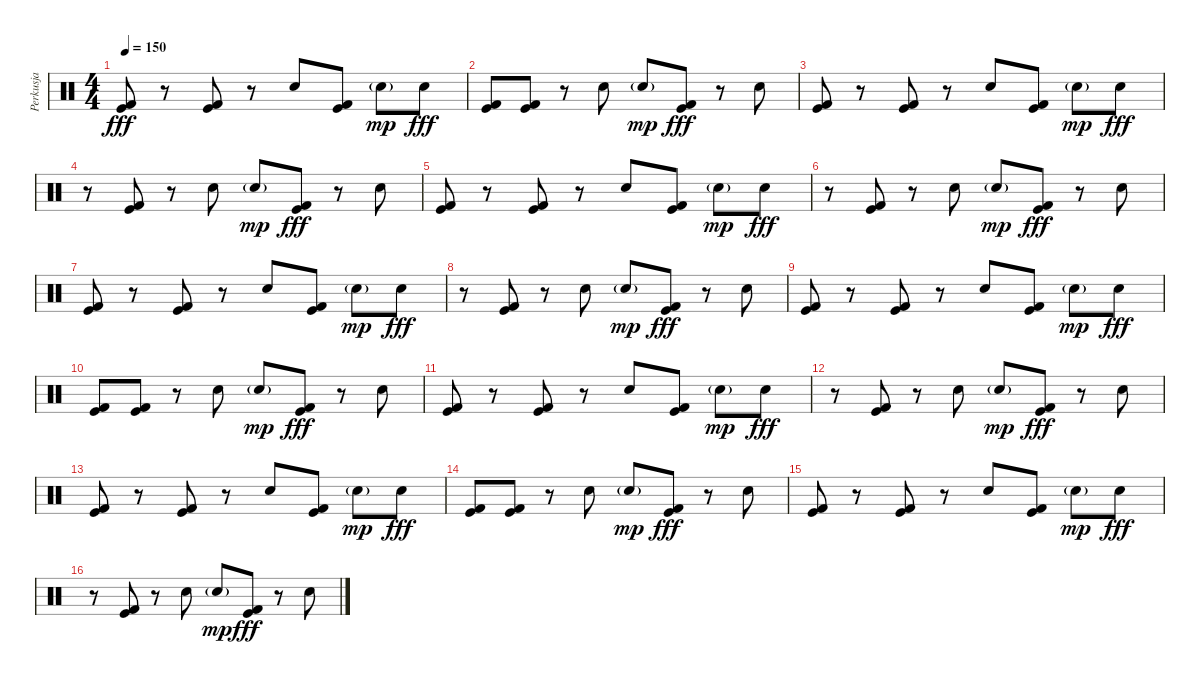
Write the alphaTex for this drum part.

\track ("Perkusja" "Perkusja") {instrument percussion}
\staff {score}
\articulation defaults
\ts (4 4)
\tempo 150
\clef neutral
\ks c
("Kick (hit)" "Kick (hit) 2").8{dy fff} r.8 ("Kick (hit)" "Kick (hit) 2").8 r.8 "Electric Snare (hit)".8 ("Kick (hit)" "Kick (hit) 2").8 "Electric Snare (hit)"{g}.8{dy mp} "Electric Snare (hit)".8{dy fff} |
("Kick (hit)" "Kick (hit) 2").8 ("Kick (hit)" "Kick (hit) 2").8 r.8 "Electric Snare (hit)".8 "Electric Snare (hit)"{g}.8{dy mp} ("Kick (hit)" "Kick (hit) 2").8{dy fff} r.8 "Electric Snare (hit)".8 |
("Kick (hit)" "Kick (hit) 2").8 r.8 ("Kick (hit)" "Kick (hit) 2").8 r.8 "Electric Snare (hit)".8 ("Kick (hit)" "Kick (hit) 2").8 "Electric Snare (hit)"{g}.8{dy mp} "Electric Snare (hit)".8{dy fff} |
r.8 ("Kick (hit)" "Kick (hit) 2").8 r.8 "Electric Snare (hit)".8 "Electric Snare (hit)"{g}.8{dy mp} ("Kick (hit)" "Kick (hit) 2").8{dy fff} r.8 "Electric Snare (hit)".8 |
("Kick (hit)" "Kick (hit) 2").8 r.8 ("Kick (hit)" "Kick (hit) 2").8 r.8 "Electric Snare (hit)".8 ("Kick (hit)" "Kick (hit) 2").8 "Electric Snare (hit)"{g}.8{dy mp} "Electric Snare (hit)".8{dy fff} |
r.8 ("Kick (hit)" "Kick (hit) 2").8 r.8 "Electric Snare (hit)".8 "Electric Snare (hit)"{g}.8{dy mp} ("Kick (hit)" "Kick (hit) 2").8{dy fff} r.8 "Electric Snare (hit)".8 |
("Kick (hit)" "Kick (hit) 2").8 r.8 ("Kick (hit)" "Kick (hit) 2").8 r.8 "Electric Snare (hit)".8 ("Kick (hit)" "Kick (hit) 2").8 "Electric Snare (hit)"{g}.8{dy mp} "Electric Snare (hit)".8{dy fff} |
r.8 ("Kick (hit)" "Kick (hit) 2").8 r.8 "Electric Snare (hit)".8 "Electric Snare (hit)"{g}.8{dy mp} ("Kick (hit)" "Kick (hit) 2").8{dy fff} r.8 "Electric Snare (hit)".8 |
("Kick (hit)" "Kick (hit) 2").8 r.8 ("Kick (hit)" "Kick (hit) 2").8 r.8 "Electric Snare (hit)".8 ("Kick (hit)" "Kick (hit) 2").8 "Electric Snare (hit)"{g}.8{dy mp} "Electric Snare (hit)".8{dy fff} |
("Kick (hit)" "Kick (hit) 2").8 ("Kick (hit)" "Kick (hit) 2").8 r.8 "Electric Snare (hit)".8 "Electric Snare (hit)"{g}.8{dy mp} ("Kick (hit)" "Kick (hit) 2").8{dy fff} r.8 "Electric Snare (hit)".8 |
("Kick (hit)" "Kick (hit) 2").8 r.8 ("Kick (hit)" "Kick (hit) 2").8 r.8 "Electric Snare (hit)".8 ("Kick (hit)" "Kick (hit) 2").8 "Electric Snare (hit)"{g}.8{dy mp} "Electric Snare (hit)".8{dy fff} |
r.8 ("Kick (hit)" "Kick (hit) 2").8 r.8 "Electric Snare (hit)".8 "Electric Snare (hit)"{g}.8{dy mp} ("Kick (hit)" "Kick (hit) 2").8{dy fff} r.8 "Electric Snare (hit)".8 |
("Kick (hit)" "Kick (hit) 2").8 r.8 ("Kick (hit)" "Kick (hit) 2").8 r.8 "Electric Snare (hit)".8 ("Kick (hit)" "Kick (hit) 2").8 "Electric Snare (hit)"{g}.8{dy mp} "Electric Snare (hit)".8{dy fff} |
("Kick (hit)" "Kick (hit) 2").8 ("Kick (hit)" "Kick (hit) 2").8 r.8 "Electric Snare (hit)".8 "Electric Snare (hit)"{g}.8{dy mp} ("Kick (hit)" "Kick (hit) 2").8{dy fff} r.8 "Electric Snare (hit)".8 |
("Kick (hit)" "Kick (hit) 2").8 r.8 ("Kick (hit)" "Kick (hit) 2").8 r.8 "Electric Snare (hit)".8 ("Kick (hit)" "Kick (hit) 2").8 "Electric Snare (hit)"{g}.8{dy mp} "Electric Snare (hit)".8{dy fff} |
r.8 ("Kick (hit)" "Kick (hit) 2").8 r.8 "Electric Snare (hit)".8 "Electric Snare (hit)"{g}.8{dy mp} ("Kick (hit)" "Kick (hit) 2").8{dy fff} r.8 "Electric Snare (hit)".8
